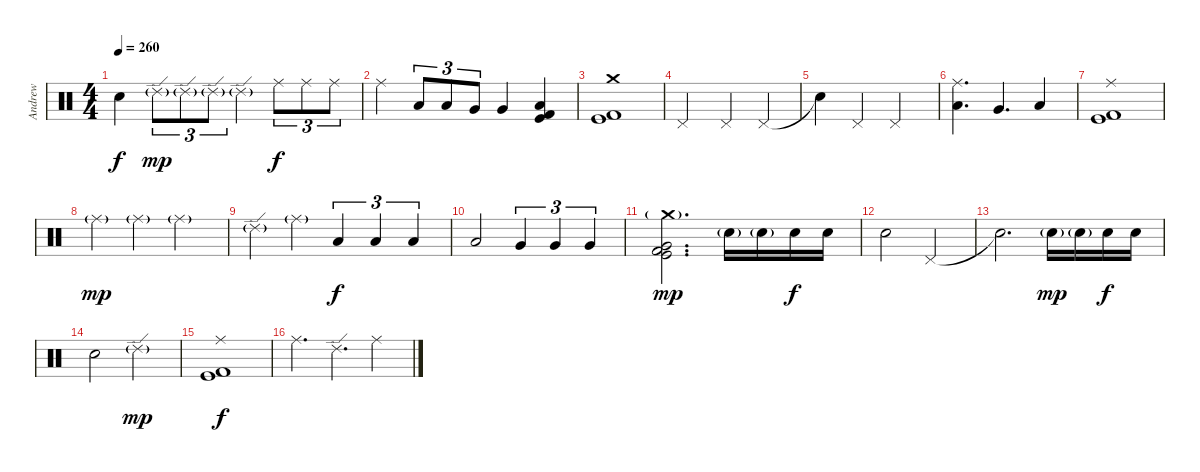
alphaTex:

\track ("Andrew" "Andrew") {instrument percussion}
\staff {score}
\articulation defaults
\ts (4 4)
\tempo 260
\clef neutral
\ks c "Snare (hit)"{t}.4{dy f} "Ride (edge) 2"{g}.8{tu (3 2) dy mp} "Ride (edge) 2"{g}.8{tu (3 2)} "Ride (edge) 2"{g}.8{tu (3 2)} "Ride (edge) 2"{g}.4 "Ride (middle)".8{tu (3 2) dy f} "Ride (middle)".8{tu (3 2)} "Ride (middle)".8{tu (3 2)}
|
"Ride (middle)".4 "Low Tom (hit)".8{tu (3 2)} "Low Tom (hit)".8{tu (3 2)} "Very Low Tom (hit)".8{tu (3 2)} "Very Low Tom (hit)".4 ("Low Floor Tom (hit)" "Kick (hit)" "Kick (hit) 2").4 |
("Crash medium (hit)" "Kick (hit)" "Kick (hit) 2").1 |
"Pedal Hi-Hat (hit)".2 "Pedal Hi-Hat (hit)".4 "Pedal Hi-Hat (hit)".4 |
"Snare (hit)"{t}.4 "Pedal Hi-Hat (hit)".4 "Pedal Hi-Hat (hit)".2 |
("Ride (middle)" "Low Tom (hit)").4{d} "Very Low Tom (hit)".4{d} "Low Floor Tom (hit)".4 |
("Ride (middle)" "Kick (hit)" "Kick (hit) 2").1 |
"Ride (middle)"{g}.4{dy mp} "Ride (middle)"{g}.4 "Ride (middle)"{g}.2 |
"Ride (edge) 2"{g}.4 "Ride (middle)"{g}.4 "Low Tom (hit)".4{tu (3 2) dy f} "Low Tom (hit)".4{tu (3 2)} "Low Tom (hit)".4{tu (3 2)} |
"Low Tom (hit)".2 "Very Low Tom (hit)".4{tu (3 2)} "Very Low Tom (hit)".4{tu (3 2)} "Very Low Tom (hit)".4{tu (3 2)} |
("Crash medium (hit)"{g} "Very Low Tom (hit)" "Kick (hit)" "Kick (hit) 2").2{d dy mp} "Snare (hit) 2"{g}.16 "Snare (hit) 2"{g}.16 "Snare (hit) 2".16{dy f} "Snare (hit) 2".16 |
"Snare (hit) 2".2 "Pedal Hi-Hat (hit)".2 |
"Snare (hit)"{t}.2{d} "Snare (hit) 2"{g}.16{dy mp} "Snare (hit) 2"{g}.16 "Snare (hit) 2".16{dy f} "Snare (hit) 2".16 |
"Snare (hit) 2".2 "Ride (edge) 2"{g}.2{dy mp} |
("Ride (middle)" "Kick (hit)" "Kick (hit) 2").1{dy f} |
"Ride (middle)".4{d} "Ride (edge) 2".4{d} "Ride (middle)".4
